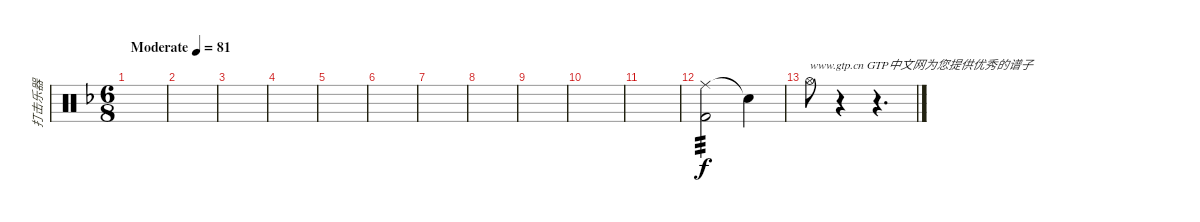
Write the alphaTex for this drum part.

\track ("打击乐器" "打击乐器") {instrument percussion}
\staff {score}
\articulation defaults
\ts (6 8)
\tempo (81 "Moderate")
\clef neutral
\ks f
|
|
|
|
|
|
|
|
|
|
|
("Ride (middle)" "Kick (hit) 2").2{tp 3} "Snare (hit)"{t}.4 |
"Hi-Hat (open)".8{txt "www.gtp.cn GTP中文网为您提供优秀的谱子"} r.4 r.4{d}
